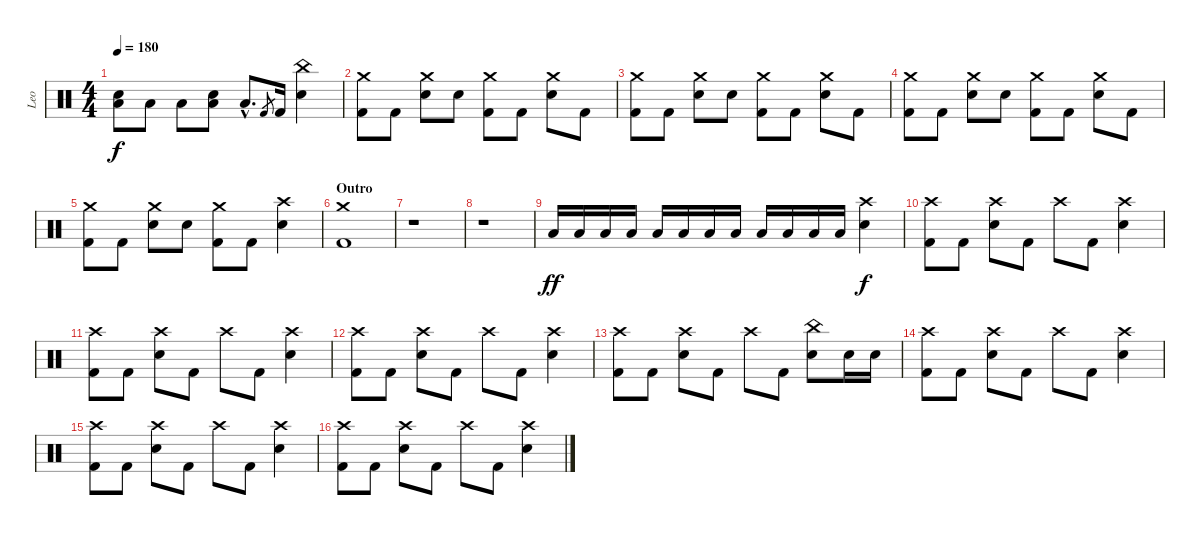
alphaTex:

\track ("Leo" "Leo") {instrument percussion}
\staff {score}
\articulation defaults
\ts (4 4)
\tempo 180
\clef neutral
\ks c
("Electric Snare (hit)" "Low Tom (hit)").8{dy f} "Low Tom (hit)".8 "Low Tom (hit)".8 ("Low Tom (hit)" "Electric Snare (hit)").8 "Low Tom (hit)"{hac}.8{d} "Kick (hit) 2".8{gr} "Kick (hit) 2".16 ("China (hit)" "Electric Snare (hit)").4 |
("Crash medium (hit)" "Kick (hit) 2").8 "Kick (hit) 2".8 ("Crash medium (hit)" "Electric Snare (hit)").8 "Electric Snare (hit)".8 ("Crash medium (hit)" "Kick (hit) 2").8 "Kick (hit) 2".8 ("Crash medium (hit)" "Electric Snare (hit)").8 "Kick (hit) 2".8 |
("Crash medium (hit)" "Kick (hit) 2").8 "Kick (hit) 2".8 ("Crash medium (hit)" "Electric Snare (hit)").8 "Electric Snare (hit)".8 ("Crash medium (hit)" "Kick (hit) 2").8 "Kick (hit) 2".8 ("Crash medium (hit)" "Electric Snare (hit)").8 "Kick (hit) 2".8 |
("Crash medium (hit)" "Kick (hit) 2").8 "Kick (hit) 2".8 ("Crash medium (hit)" "Electric Snare (hit)").8 "Electric Snare (hit)".8 ("Crash medium (hit)" "Kick (hit) 2").8 "Kick (hit) 2".8 ("Crash medium (hit)" "Electric Snare (hit)").8 "Kick (hit) 2".8 |
("Crash medium (hit)" "Kick (hit) 2").8 "Kick (hit) 2".8 ("Crash medium (hit)" "Electric Snare (hit)").8 "Electric Snare (hit)".8 ("Crash medium (hit)" "Kick (hit) 2").8 "Kick (hit) 2".8 ("Crash high (hit)" "Electric Snare (hit)").4 |
\section ("" "Outro")
("Crash medium (hit)" "Kick (hit) 2").1 |
r.1 |
r.1 |
"Low Tom (hit)".16{dy ff} "Low Tom (hit)".16 "Low Tom (hit)".16 "Low Tom (hit)".16 "Low Tom (hit)".16 "Low Tom (hit)".16 "Low Tom (hit)".16 "Low Tom (hit)".16 "Low Tom (hit)".16 "Low Tom (hit)".16 "Low Tom (hit)".16 "Low Tom (hit)".16 ("Crash high (hit)" "Electric Snare (hit)").4{dy f} |
("Crash high (hit)" "Kick (hit) 2").8 "Kick (hit) 2".8 ("Crash high (hit)" "Electric Snare (hit)").8 "Kick (hit) 2".8 "Crash high (hit)".8 "Kick (hit) 2".8 ("Crash high (hit)" "Electric Snare (hit)").4 |
("Crash high (hit)" "Kick (hit) 2").8 "Kick (hit) 2".8 ("Crash high (hit)" "Electric Snare (hit)").8 "Kick (hit) 2".8 "Crash high (hit)".8 "Kick (hit) 2".8 ("Crash high (hit)" "Electric Snare (hit)").4 |
("Crash high (hit)" "Kick (hit) 2").8 "Kick (hit) 2".8 ("Crash high (hit)" "Electric Snare (hit)").8 "Kick (hit) 2".8 "Crash high (hit)".8 "Kick (hit) 2".8 ("Crash high (hit)" "Electric Snare (hit)").4 |
("Crash high (hit)" "Kick (hit) 2").8 "Kick (hit) 2".8 ("Crash high (hit)" "Electric Snare (hit)").8 "Kick (hit) 2".8 "Crash high (hit)".8 "Kick (hit) 2".8 ("China (hit)" "Electric Snare (hit)").8 "Electric Snare (hit)".16 "Electric Snare (hit)".16 |
("Crash high (hit)" "Kick (hit) 2").8 "Kick (hit) 2".8 ("Crash high (hit)" "Electric Snare (hit)").8 "Kick (hit) 2".8 "Crash high (hit)".8 "Kick (hit) 2".8 ("Crash high (hit)" "Electric Snare (hit)").4 |
("Crash high (hit)" "Kick (hit) 2").8 "Kick (hit) 2".8 ("Crash high (hit)" "Electric Snare (hit)").8 "Kick (hit) 2".8 "Crash high (hit)".8 "Kick (hit) 2".8 ("Crash high (hit)" "Electric Snare (hit)").4 |
("Crash high (hit)" "Kick (hit) 2").8 "Kick (hit) 2".8 ("Crash high (hit)" "Electric Snare (hit)").8 "Kick (hit) 2".8 "Crash high (hit)".8 "Kick (hit) 2".8 ("Crash high (hit)" "Electric Snare (hit)").4
